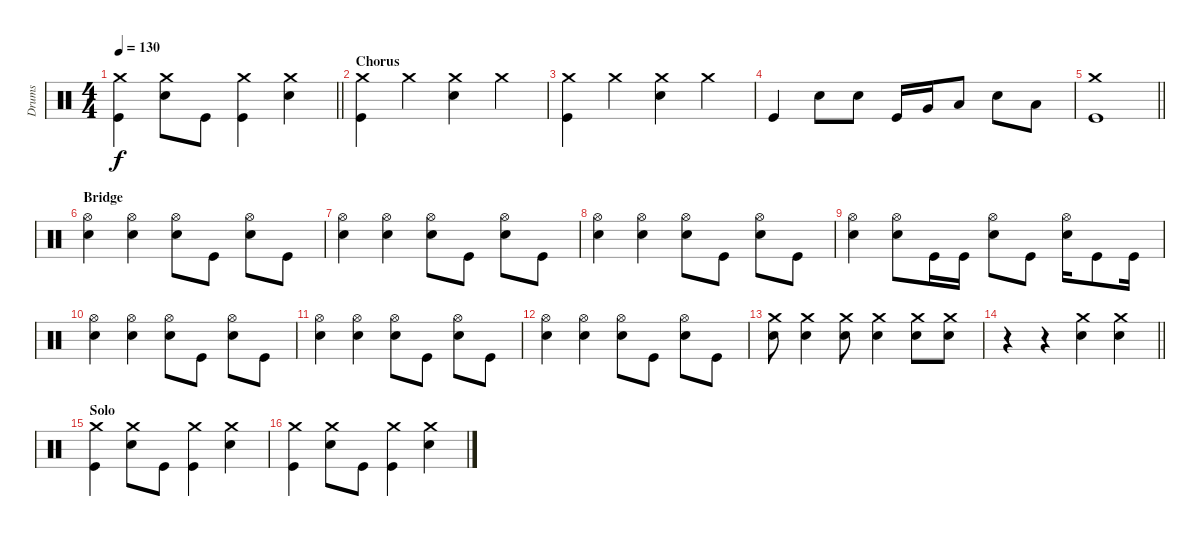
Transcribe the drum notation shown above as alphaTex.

\track ("Drums" "Drums") {instrument percussion}
\staff {score}
\articulation defaults
\ts (4 4)
\tempo 130
\clef neutral
\barLineRight lightlight
\ks c
("Kick (hit)" "Crash medium (hit)").4{dy f} ("Electric Snare (hit)" "Crash medium (hit)").8 "Kick (hit)".8 ("Kick (hit)" "Crash medium (hit)").4 ("Electric Snare (hit)" "Crash medium (hit)").4 |
\section ("" "Chorus")
("Kick (hit)" "Crash medium (hit)").4 "Crash medium (hit)".4 ("Electric Snare (hit)" "Crash medium (hit)").4 "Crash medium (hit)".4 |
("Kick (hit)" "Crash medium (hit)").4 "Crash medium (hit)".4 ("Electric Snare (hit)" "Crash medium (hit)").4 "Crash medium (hit)".4 |
"Kick (hit)".4 "Electric Snare (hit)".8 "Electric Snare (hit)".8 "Kick (hit)".16 "Very Low Tom (hit)".16 "Low Floor Tom (hit)".8 "Electric Snare (hit)".8 "Low Floor Tom (hit)".8 |
\barLineRight lightlight
("Kick (hit)" "Crash medium (hit)").1 |
\section ("" "Bridge")
("Electric Snare (hit)" "Hi-Hat (open)").4 ("Electric Snare (hit)" "Hi-Hat (open)").4 ("Electric Snare (hit)" "Hi-Hat (open)").8 "Kick (hit)".8 ("Electric Snare (hit)" "Hi-Hat (open)").8 "Kick (hit)".8 |
("Electric Snare (hit)" "Hi-Hat (open)").4 ("Electric Snare (hit)" "Hi-Hat (open)").4 ("Electric Snare (hit)" "Hi-Hat (open)").8 "Kick (hit)".8 ("Electric Snare (hit)" "Hi-Hat (open)").8 "Kick (hit)".8 |
("Electric Snare (hit)" "Hi-Hat (open)").4 ("Electric Snare (hit)" "Hi-Hat (open)").4 ("Electric Snare (hit)" "Hi-Hat (open)").8 "Kick (hit)".8 ("Electric Snare (hit)" "Hi-Hat (open)").8 "Kick (hit)".8 |
("Electric Snare (hit)" "Hi-Hat (open)").4 ("Electric Snare (hit)" "Hi-Hat (open)").8 "Kick (hit)".16 "Kick (hit)".16 ("Electric Snare (hit)" "Hi-Hat (open)").8 "Kick (hit)".8 ("Electric Snare (hit)" "Hi-Hat (open)").16 "Kick (hit)".8 "Kick (hit)".16 |
("Electric Snare (hit)" "Hi-Hat (open)").4 ("Electric Snare (hit)" "Hi-Hat (open)").4 ("Electric Snare (hit)" "Hi-Hat (open)").8 "Kick (hit)".8 ("Electric Snare (hit)" "Hi-Hat (open)").8 "Kick (hit)".8 |
("Electric Snare (hit)" "Hi-Hat (open)").4 ("Electric Snare (hit)" "Hi-Hat (open)").4 ("Electric Snare (hit)" "Hi-Hat (open)").8 "Kick (hit)".8 ("Electric Snare (hit)" "Hi-Hat (open)").8 "Kick (hit)".8 |
("Electric Snare (hit)" "Hi-Hat (open)").4 ("Electric Snare (hit)" "Hi-Hat (open)").4 ("Electric Snare (hit)" "Hi-Hat (open)").8 "Kick (hit)".8 ("Electric Snare (hit)" "Hi-Hat (open)").8 "Kick (hit)".8 |
("Electric Snare (hit)" "Crash medium (hit)").8 ("Electric Snare (hit)" "Crash medium (hit)").4 ("Electric Snare (hit)" "Crash medium (hit)").8 ("Electric Snare (hit)" "Crash medium (hit)").4 ("Electric Snare (hit)" "Crash medium (hit)").8 ("Electric Snare (hit)" "Crash medium (hit)").8 |
\barLineRight lightlight
r.4 r.4 ("Electric Snare (hit)" "Crash medium (hit)").4 ("Electric Snare (hit)" "Crash medium (hit)").4 |
\section ("" "Solo")
("Kick (hit)" "Crash medium (hit)").4 ("Electric Snare (hit)" "Crash medium (hit)").8 "Kick (hit)".8 ("Kick (hit)" "Crash medium (hit)").4 ("Electric Snare (hit)" "Crash medium (hit)").4 |
("Kick (hit)" "Crash medium (hit)").4 ("Electric Snare (hit)" "Crash medium (hit)").8 "Kick (hit)".8 ("Kick (hit)" "Crash medium (hit)").4 ("Electric Snare (hit)" "Crash medium (hit)").4
